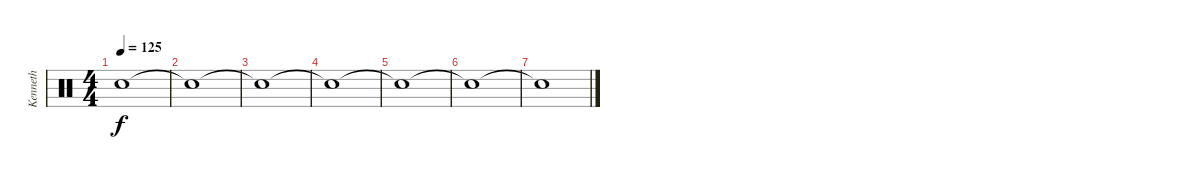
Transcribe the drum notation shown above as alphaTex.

\track ("Kenneth" "Kenneth") {instrument percussion}
\staff {score}
\articulation defaults
\ts (4 4)
\tempo 125
\clef neutral
\ks c "Snare (hit)"{t}.1{dy f}
|
"Snare (hit)"{t}.1 |
"Snare (hit)"{t}.1 |
"Snare (hit)"{t}.1 |
"Snare (hit)"{t}.1 |
"Snare (hit)"{t}.1 |
"Snare (hit)"{t}.1
